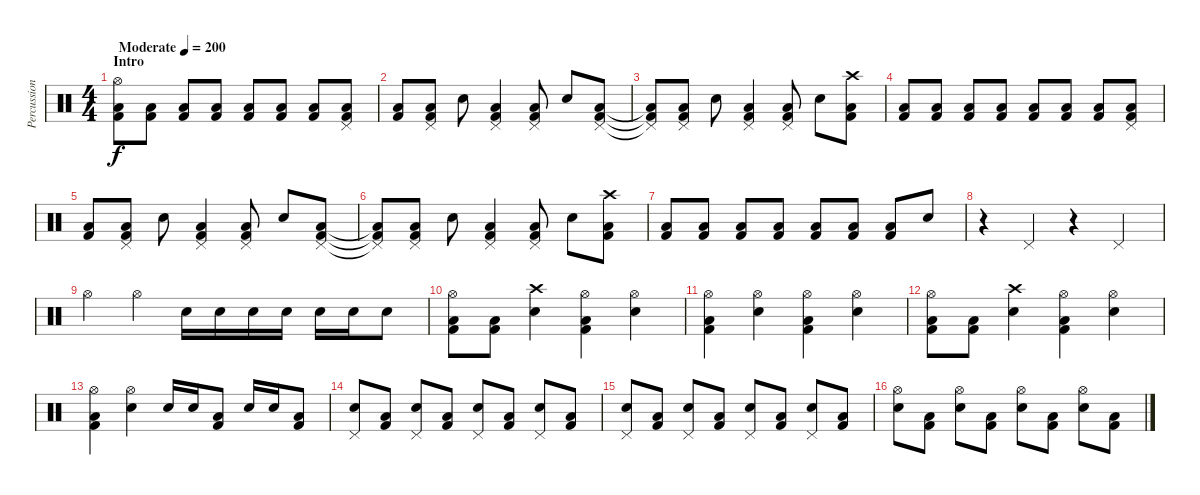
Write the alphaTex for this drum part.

\track ("Percussion" "Percussion") {instrument percussion}
\staff {score}
\articulation defaults
\ts (4 4)
\section ("" "Intro")
\tempo (200 "Moderate")
\clef neutral
\ks c
("Kick (hit) 2" "Low Floor Tom (hit)" "Hi-Hat (open)").8{dy f} ("Kick (hit) 2" "Low Floor Tom (hit)").8 ("Kick (hit) 2" "Low Floor Tom (hit)").8 ("Kick (hit) 2" "Low Floor Tom (hit)").8 ("Kick (hit) 2" "Low Floor Tom (hit)").8 ("Kick (hit) 2" "Low Floor Tom (hit)").8 ("Kick (hit) 2" "Low Floor Tom (hit)").8 ("Kick (hit) 2" "Low Floor Tom (hit)" "Pedal Hi-Hat (hit)").8 |
("Kick (hit) 2" "Low Floor Tom (hit)").8 ("Kick (hit) 2" "Low Floor Tom (hit)" "Pedal Hi-Hat (hit)").8 "Electric Snare (hit)".8 ("Kick (hit) 2" "Low Floor Tom (hit)" "Pedal Hi-Hat (hit)").4 ("Kick (hit) 2" "Low Floor Tom (hit)" "Pedal Hi-Hat (hit)").8 "Electric Snare (hit)".8 ("Kick (hit) 2" "Low Floor Tom (hit)" "Pedal Hi-Hat (hit)").8 |
("Kick (hit) 2"{t} "Low Floor Tom (hit)"{t} "Pedal Hi-Hat (hit)"{t}).8 ("Kick (hit) 2" "Low Floor Tom (hit)" "Pedal Hi-Hat (hit)").8 "Electric Snare (hit)".8 ("Kick (hit) 2" "Low Floor Tom (hit)" "Pedal Hi-Hat (hit)").4 ("Kick (hit) 2" "Low Floor Tom (hit)" "Pedal Hi-Hat (hit)").8 "Electric Snare (hit)".8 ("Kick (hit) 2" "Low Floor Tom (hit)" "Crash high (hit)").8 |
("Kick (hit) 2" "Low Floor Tom (hit)").8 ("Kick (hit) 2" "Low Floor Tom (hit)").8 ("Kick (hit) 2" "Low Floor Tom (hit)").8 ("Kick (hit) 2" "Low Floor Tom (hit)").8 ("Kick (hit) 2" "Low Floor Tom (hit)").8 ("Kick (hit) 2" "Low Floor Tom (hit)").8 ("Kick (hit) 2" "Low Floor Tom (hit)").8 ("Kick (hit) 2" "Low Floor Tom (hit)" "Pedal Hi-Hat (hit)").8 |
("Kick (hit) 2" "Low Floor Tom (hit)").8 ("Kick (hit) 2" "Low Floor Tom (hit)" "Pedal Hi-Hat (hit)").8 "Electric Snare (hit)".8 ("Kick (hit) 2" "Low Floor Tom (hit)" "Pedal Hi-Hat (hit)").4 ("Kick (hit) 2" "Low Floor Tom (hit)" "Pedal Hi-Hat (hit)").8 "Electric Snare (hit)".8 ("Kick (hit) 2" "Low Floor Tom (hit)" "Pedal Hi-Hat (hit)").8 |
("Kick (hit) 2"{t} "Low Floor Tom (hit)"{t} "Pedal Hi-Hat (hit)"{t}).8 ("Kick (hit) 2" "Low Floor Tom (hit)" "Pedal Hi-Hat (hit)").8 "Electric Snare (hit)".8 ("Kick (hit) 2" "Low Floor Tom (hit)" "Pedal Hi-Hat (hit)").4 ("Kick (hit) 2" "Low Floor Tom (hit)" "Pedal Hi-Hat (hit)").8 "Electric Snare (hit)".8 ("Kick (hit) 2" "Low Floor Tom (hit)" "Crash high (hit)").8 |
("Kick (hit) 2" "Low Floor Tom (hit)").8 ("Kick (hit) 2" "Low Floor Tom (hit)").8 ("Kick (hit) 2" "Low Floor Tom (hit)").8 ("Kick (hit) 2" "Low Floor Tom (hit)").8 ("Kick (hit) 2" "Low Floor Tom (hit)").8 ("Kick (hit) 2" "Low Floor Tom (hit)").8 ("Kick (hit) 2" "Low Floor Tom (hit)").8 "Electric Snare (hit)".8 |
r.4 "Pedal Hi-Hat (hit)".4 r.4 "Pedal Hi-Hat (hit)".4 |
"Hi-Hat (open)".4 "Hi-Hat (open)".4 "Electric Snare (hit)".16 "Electric Snare (hit)".16 "Electric Snare (hit)".16 "Electric Snare (hit)".16 "Electric Snare (hit)".16 "Electric Snare (hit)".16 "Electric Snare (hit)".8 |
("Kick (hit) 2" "Low Floor Tom (hit)" "Hi-Hat (open)").8 ("Kick (hit) 2" "Low Floor Tom (hit)").8 ("Electric Snare (hit)" "Crash high (hit)").4 ("Kick (hit) 2" "Low Floor Tom (hit)" "Hi-Hat (open)").4 ("Electric Snare (hit)" "Hi-Hat (open)").4 |
("Kick (hit) 2" "Low Floor Tom (hit)" "Hi-Hat (open)").4 ("Electric Snare (hit)" "Hi-Hat (open)").4 ("Kick (hit) 2" "Low Floor Tom (hit)" "Hi-Hat (open)").4 ("Electric Snare (hit)" "Hi-Hat (open)").4 |
("Kick (hit) 2" "Low Floor Tom (hit)" "Hi-Hat (open)").8 ("Kick (hit) 2" "Low Floor Tom (hit)").8 ("Electric Snare (hit)" "Crash high (hit)").4 ("Kick (hit) 2" "Low Floor Tom (hit)" "Hi-Hat (open)").4 ("Electric Snare (hit)" "Hi-Hat (open)").4 |
("Kick (hit) 2" "Low Floor Tom (hit)" "Hi-Hat (open)").4 ("Electric Snare (hit)" "Hi-Hat (open)").4 "Electric Snare (hit)".16 "Electric Snare (hit)".16 ("Kick (hit) 2" "Low Floor Tom (hit)").8 "Electric Snare (hit)".16 "Electric Snare (hit)".16 ("Kick (hit) 2" "Low Floor Tom (hit)").8 |
("Electric Snare (hit)" "Pedal Hi-Hat (hit)").8 ("Kick (hit) 2" "Low Floor Tom (hit)").8 ("Electric Snare (hit)" "Pedal Hi-Hat (hit)").8 ("Kick (hit) 2" "Low Floor Tom (hit)").8 ("Electric Snare (hit)" "Pedal Hi-Hat (hit)").8 ("Kick (hit) 2" "Low Floor Tom (hit)").8 ("Electric Snare (hit)" "Pedal Hi-Hat (hit)").8 ("Kick (hit) 2" "Low Floor Tom (hit)").8 |
("Electric Snare (hit)" "Pedal Hi-Hat (hit)").8 ("Kick (hit) 2" "Low Floor Tom (hit)").8 ("Electric Snare (hit)" "Pedal Hi-Hat (hit)").8 ("Kick (hit) 2" "Low Floor Tom (hit)").8 ("Electric Snare (hit)" "Pedal Hi-Hat (hit)").8 ("Kick (hit) 2" "Low Floor Tom (hit)").8 ("Electric Snare (hit)" "Pedal Hi-Hat (hit)").8 ("Kick (hit) 2" "Low Floor Tom (hit)").8 |
("Electric Snare (hit)" "Hi-Hat (open)").8 ("Kick (hit) 2" "Low Floor Tom (hit)").8 ("Electric Snare (hit)" "Hi-Hat (open)").8 ("Kick (hit) 2" "Low Floor Tom (hit)").8 ("Electric Snare (hit)" "Hi-Hat (open)").8 ("Kick (hit) 2" "Low Floor Tom (hit)").8 ("Electric Snare (hit)" "Hi-Hat (open)").8 ("Kick (hit) 2" "Low Floor Tom (hit)").8
